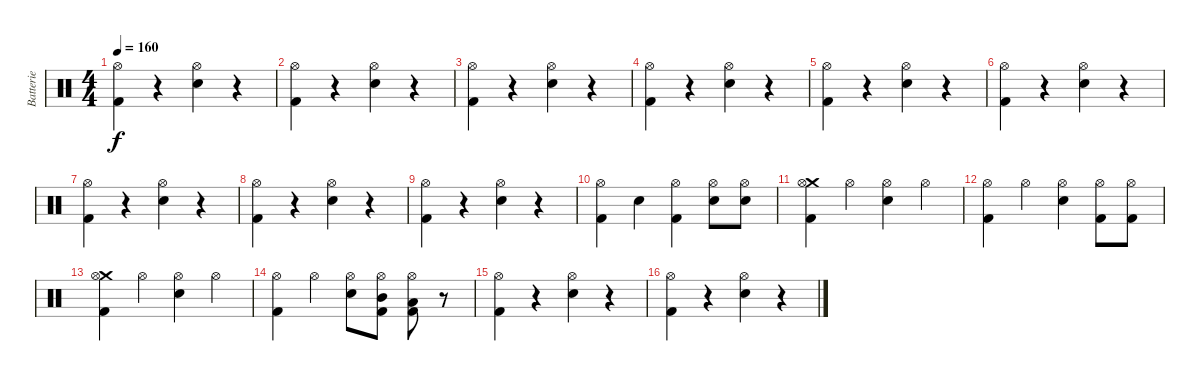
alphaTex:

\track ("Batterie" "Batterie") {instrument percussion}
\staff {score}
\articulation defaults
\ts (4 4)
\tempo 160
\clef neutral
\ks c
("Hi-Hat (open)" "Kick (hit) 2").4{dy f} r.4 ("Hi-Hat (open)" "Electric Snare (hit)").4 r.4 |
("Hi-Hat (open)" "Kick (hit) 2").4 r.4 ("Hi-Hat (open)" "Electric Snare (hit)").4 r.4 |
("Hi-Hat (open)" "Kick (hit) 2").4 r.4 ("Hi-Hat (open)" "Electric Snare (hit)").4 r.4 |
("Hi-Hat (open)" "Kick (hit) 2").4 r.4 ("Hi-Hat (open)" "Electric Snare (hit)").4 r.4 |
("Hi-Hat (open)" "Kick (hit) 2").4 r.4 ("Hi-Hat (open)" "Electric Snare (hit)").4 r.4 |
("Hi-Hat (open)" "Kick (hit) 2").4 r.4 ("Hi-Hat (open)" "Electric Snare (hit)").4 r.4 |
("Hi-Hat (open)" "Kick (hit) 2").4 r.4 ("Hi-Hat (open)" "Electric Snare (hit)").4 r.4 |
("Hi-Hat (open)" "Kick (hit) 2").4 r.4 ("Hi-Hat (open)" "Electric Snare (hit)").4 r.4 |
("Hi-Hat (open)" "Kick (hit) 2").4 r.4 ("Hi-Hat (open)" "Electric Snare (hit)").4 r.4 |
("Hi-Hat (open)" "Kick (hit) 2").4 "Electric Snare (hit)".4 ("Hi-Hat (open)" "Kick (hit) 2").4 ("Hi-Hat (open)" "Electric Snare (hit)").8 ("Hi-Hat (open)" "Electric Snare (hit)").8 |
("Crash medium (hit)" "Hi-Hat (open)" "Kick (hit) 2").4 "Hi-Hat (open)".4 ("Hi-Hat (open)" "Electric Snare (hit)").4 "Hi-Hat (open)".4 |
("Hi-Hat (open)" "Kick (hit) 2").4 "Hi-Hat (open)".4 ("Hi-Hat (open)" "Electric Snare (hit)").4 ("Hi-Hat (open)" "Kick (hit) 2").8 ("Hi-Hat (open)" "Kick (hit) 2").8 |
("Crash medium (hit)" "Hi-Hat (open)" "Kick (hit) 2").4 "Hi-Hat (open)".4 ("Hi-Hat (open)" "Electric Snare (hit)").4 "Hi-Hat (open)".4 |
("Hi-Hat (open)" "Kick (hit) 2").4 "Hi-Hat (open)".4 ("Hi-Hat (open)" "Electric Snare (hit)").8 ("Mid Tom (hit)" "Hi-Hat (open)" "Kick (hit) 2").8 ("Low Tom (hit)" "Hi-Hat (open)" "Kick (hit) 2").8 r.8 |
("Hi-Hat (open)" "Kick (hit) 2").4 r.4 ("Hi-Hat (open)" "Electric Snare (hit)").4 r.4 |
("Hi-Hat (open)" "Kick (hit) 2").4 r.4 ("Hi-Hat (open)" "Electric Snare (hit)").4 r.4
